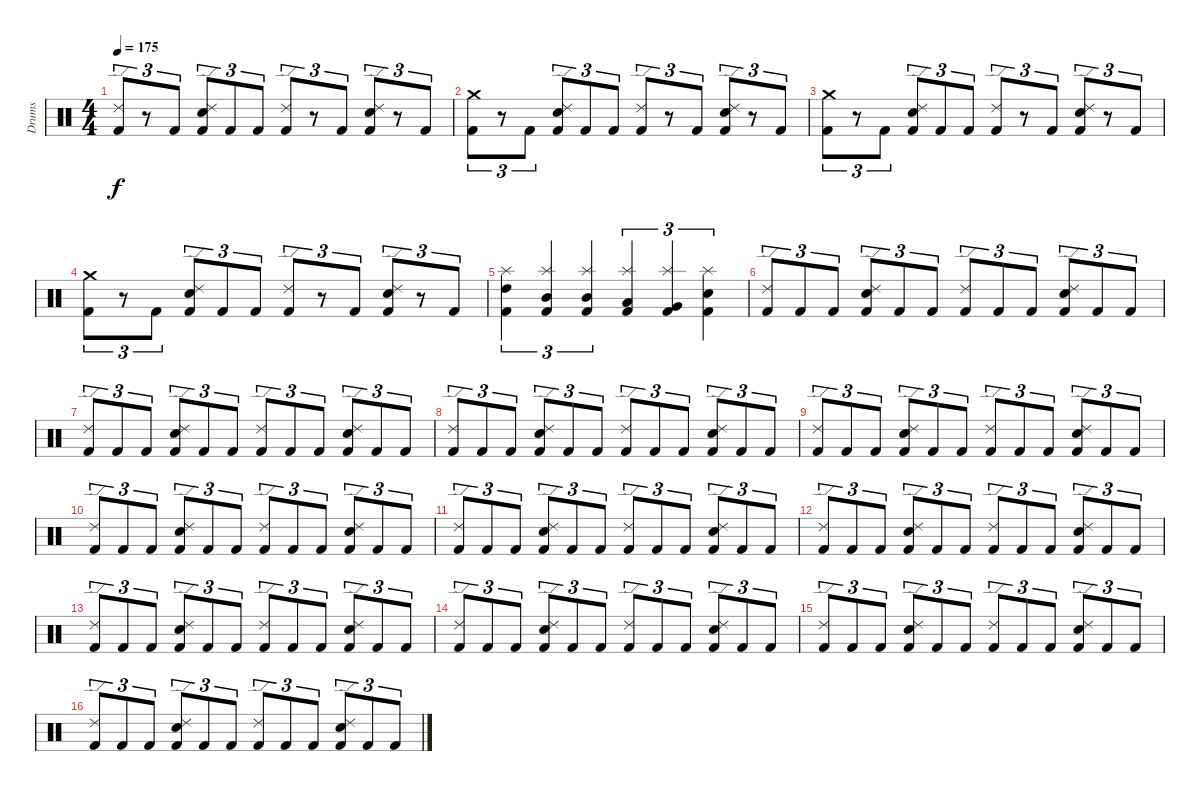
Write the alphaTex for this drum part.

\track ("Drums" "Drums") {instrument percussion}
\staff {score}
\articulation defaults
\ts (4 4)
\tempo 175
\clef neutral
\ks c
("Ride (edge) 2" "Kick (hit) 2").8{tu (3 2) dy f} r.8{tu (3 2)} "Kick (hit) 2".8{tu (3 2)} ("Ride (edge) 2" "Electric Snare (hit)" "Kick (hit) 2").8{tu (3 2)} "Kick (hit) 2".8{tu (3 2)} "Kick (hit) 2".8{tu (3 2)} ("Ride (edge) 2" "Kick (hit) 2").8{tu (3 2)} r.8{tu (3 2)} "Kick (hit) 2".8{tu (3 2)} ("Electric Snare (hit)" "Kick (hit) 2" "Ride (edge) 2").8{tu (3 2)} r.8{tu (3 2)} "Kick (hit) 2".8{tu (3 2)} |
("Crash medium (hit)" "Kick (hit) 2").8{tu (3 2)} r.8{tu (3 2)} "Kick (hit) 2".8{tu (3 2)} ("Ride (edge) 2" "Electric Snare (hit)" "Kick (hit) 2").8{tu (3 2)} "Kick (hit) 2".8{tu (3 2)} "Kick (hit) 2".8{tu (3 2)} ("Ride (edge) 2" "Kick (hit) 2").8{tu (3 2)} r.8{tu (3 2)} "Kick (hit) 2".8{tu (3 2)} ("Electric Snare (hit)" "Kick (hit) 2" "Ride (edge) 2").8{tu (3 2)} r.8{tu (3 2)} "Kick (hit) 2".8{tu (3 2)} |
("Crash medium (hit)" "Kick (hit) 2").8{tu (3 2)} r.8{tu (3 2)} "Kick (hit) 2".8{tu (3 2)} ("Ride (edge) 2" "Electric Snare (hit)" "Kick (hit) 2").8{tu (3 2)} "Kick (hit) 2".8{tu (3 2)} "Kick (hit) 2".8{tu (3 2)} ("Ride (edge) 2" "Kick (hit) 2").8{tu (3 2)} r.8{tu (3 2)} "Kick (hit) 2".8{tu (3 2)} ("Electric Snare (hit)" "Kick (hit) 2" "Ride (edge) 2").8{tu (3 2)} r.8{tu (3 2)} "Kick (hit) 2".8{tu (3 2)} |
("Crash medium (hit)" "Kick (hit) 2").8{tu (3 2)} r.8{tu (3 2)} "Kick (hit) 2".8{tu (3 2)} ("Ride (edge) 2" "Electric Snare (hit)" "Kick (hit) 2").8{tu (3 2)} "Kick (hit) 2".8{tu (3 2)} "Kick (hit) 2".8{tu (3 2)} ("Ride (edge) 2" "Kick (hit) 2").8{tu (3 2)} r.8{tu (3 2)} "Kick (hit) 2".8{tu (3 2)} ("Electric Snare (hit)" "Kick (hit) 2" "Ride (edge) 2").8{tu (3 2)} r.8{tu (3 2)} "Kick (hit) 2".8{tu (3 2)} |
("High Tom (hit)" "Splash (hit)" "Kick (hit) 2").4{tu (3 2)} ("Mid Tom (hit)" "Splash (hit)" "Kick (hit) 2").4{tu (3 2)} ("Mid Tom (hit)" "Splash (hit)" "Kick (hit) 2").4{tu (3 2)} ("Low Tom (hit)" "Splash (hit)" "Kick (hit) 2").4{tu (3 2)} ("Very Low Tom (hit)" "Splash (hit)" "Kick (hit) 2").4{tu (3 2)} ("Electric Snare (hit)" "Splash (hit)" "Kick (hit) 2").4{tu (3 2)} |
("Ride (edge) 2" "Kick (hit) 2").8{tu (3 2)} "Kick (hit) 2".8{tu (3 2)} "Kick (hit) 2".8{tu (3 2)} ("Electric Snare (hit)" "Ride (edge) 2" "Kick (hit) 2").8{tu (3 2)} "Kick (hit) 2".8{tu (3 2)} "Kick (hit) 2".8{tu (3 2)} ("Ride (edge) 2" "Kick (hit) 2").8{tu (3 2)} "Kick (hit) 2".8{tu (3 2)} "Kick (hit) 2".8{tu (3 2)} ("Electric Snare (hit)" "Ride (edge) 2" "Kick (hit) 2").8{tu (3 2)} "Kick (hit) 2".8{tu (3 2)} "Kick (hit) 2".8{tu (3 2)} |
("Ride (edge) 2" "Kick (hit) 2").8{tu (3 2)} "Kick (hit) 2".8{tu (3 2)} "Kick (hit) 2".8{tu (3 2)} ("Electric Snare (hit)" "Ride (edge) 2" "Kick (hit) 2").8{tu (3 2)} "Kick (hit) 2".8{tu (3 2)} "Kick (hit) 2".8{tu (3 2)} ("Ride (edge) 2" "Kick (hit) 2").8{tu (3 2)} "Kick (hit) 2".8{tu (3 2)} "Kick (hit) 2".8{tu (3 2)} ("Electric Snare (hit)" "Ride (edge) 2" "Kick (hit) 2").8{tu (3 2)} "Kick (hit) 2".8{tu (3 2)} "Kick (hit) 2".8{tu (3 2)} |
("Ride (edge) 2" "Kick (hit) 2").8{tu (3 2)} "Kick (hit) 2".8{tu (3 2)} "Kick (hit) 2".8{tu (3 2)} ("Electric Snare (hit)" "Ride (edge) 2" "Kick (hit) 2").8{tu (3 2)} "Kick (hit) 2".8{tu (3 2)} "Kick (hit) 2".8{tu (3 2)} ("Ride (edge) 2" "Kick (hit) 2").8{tu (3 2)} "Kick (hit) 2".8{tu (3 2)} "Kick (hit) 2".8{tu (3 2)} ("Electric Snare (hit)" "Ride (edge) 2" "Kick (hit) 2").8{tu (3 2)} "Kick (hit) 2".8{tu (3 2)} "Kick (hit) 2".8{tu (3 2)} |
("Ride (edge) 2" "Kick (hit) 2").8{tu (3 2)} "Kick (hit) 2".8{tu (3 2)} "Kick (hit) 2".8{tu (3 2)} ("Electric Snare (hit)" "Ride (edge) 2" "Kick (hit) 2").8{tu (3 2)} "Kick (hit) 2".8{tu (3 2)} "Kick (hit) 2".8{tu (3 2)} ("Ride (edge) 2" "Kick (hit) 2").8{tu (3 2)} "Kick (hit) 2".8{tu (3 2)} "Kick (hit) 2".8{tu (3 2)} ("Electric Snare (hit)" "Ride (edge) 2" "Kick (hit) 2").8{tu (3 2)} "Kick (hit) 2".8{tu (3 2)} "Kick (hit) 2".8{tu (3 2)} |
("Ride (edge) 2" "Kick (hit) 2").8{tu (3 2)} "Kick (hit) 2".8{tu (3 2)} "Kick (hit) 2".8{tu (3 2)} ("Electric Snare (hit)" "Ride (edge) 2" "Kick (hit) 2").8{tu (3 2)} "Kick (hit) 2".8{tu (3 2)} "Kick (hit) 2".8{tu (3 2)} ("Ride (edge) 2" "Kick (hit) 2").8{tu (3 2)} "Kick (hit) 2".8{tu (3 2)} "Kick (hit) 2".8{tu (3 2)} ("Electric Snare (hit)" "Ride (edge) 2" "Kick (hit) 2").8{tu (3 2)} "Kick (hit) 2".8{tu (3 2)} "Kick (hit) 2".8{tu (3 2)} |
("Ride (edge) 2" "Kick (hit) 2").8{tu (3 2)} "Kick (hit) 2".8{tu (3 2)} "Kick (hit) 2".8{tu (3 2)} ("Electric Snare (hit)" "Ride (edge) 2" "Kick (hit) 2").8{tu (3 2)} "Kick (hit) 2".8{tu (3 2)} "Kick (hit) 2".8{tu (3 2)} ("Ride (edge) 2" "Kick (hit) 2").8{tu (3 2)} "Kick (hit) 2".8{tu (3 2)} "Kick (hit) 2".8{tu (3 2)} ("Electric Snare (hit)" "Ride (edge) 2" "Kick (hit) 2").8{tu (3 2)} "Kick (hit) 2".8{tu (3 2)} "Kick (hit) 2".8{tu (3 2)} |
("Ride (edge) 2" "Kick (hit) 2").8{tu (3 2)} "Kick (hit) 2".8{tu (3 2)} "Kick (hit) 2".8{tu (3 2)} ("Electric Snare (hit)" "Ride (edge) 2" "Kick (hit) 2").8{tu (3 2)} "Kick (hit) 2".8{tu (3 2)} "Kick (hit) 2".8{tu (3 2)} ("Ride (edge) 2" "Kick (hit) 2").8{tu (3 2)} "Kick (hit) 2".8{tu (3 2)} "Kick (hit) 2".8{tu (3 2)} ("Electric Snare (hit)" "Ride (edge) 2" "Kick (hit) 2").8{tu (3 2)} "Kick (hit) 2".8{tu (3 2)} "Kick (hit) 2".8{tu (3 2)} |
("Ride (edge) 2" "Kick (hit) 2").8{tu (3 2)} "Kick (hit) 2".8{tu (3 2)} "Kick (hit) 2".8{tu (3 2)} ("Electric Snare (hit)" "Ride (edge) 2" "Kick (hit) 2").8{tu (3 2)} "Kick (hit) 2".8{tu (3 2)} "Kick (hit) 2".8{tu (3 2)} ("Ride (edge) 2" "Kick (hit) 2").8{tu (3 2)} "Kick (hit) 2".8{tu (3 2)} "Kick (hit) 2".8{tu (3 2)} ("Electric Snare (hit)" "Ride (edge) 2" "Kick (hit) 2").8{tu (3 2)} "Kick (hit) 2".8{tu (3 2)} "Kick (hit) 2".8{tu (3 2)} |
("Ride (edge) 2" "Kick (hit) 2").8{tu (3 2)} "Kick (hit) 2".8{tu (3 2)} "Kick (hit) 2".8{tu (3 2)} ("Electric Snare (hit)" "Ride (edge) 2" "Kick (hit) 2").8{tu (3 2)} "Kick (hit) 2".8{tu (3 2)} "Kick (hit) 2".8{tu (3 2)} ("Ride (edge) 2" "Kick (hit) 2").8{tu (3 2)} "Kick (hit) 2".8{tu (3 2)} "Kick (hit) 2".8{tu (3 2)} ("Electric Snare (hit)" "Ride (edge) 2" "Kick (hit) 2").8{tu (3 2)} "Kick (hit) 2".8{tu (3 2)} "Kick (hit) 2".8{tu (3 2)} |
("Ride (edge) 2" "Kick (hit) 2").8{tu (3 2)} "Kick (hit) 2".8{tu (3 2)} "Kick (hit) 2".8{tu (3 2)} ("Electric Snare (hit)" "Ride (edge) 2" "Kick (hit) 2").8{tu (3 2)} "Kick (hit) 2".8{tu (3 2)} "Kick (hit) 2".8{tu (3 2)} ("Ride (edge) 2" "Kick (hit) 2").8{tu (3 2)} "Kick (hit) 2".8{tu (3 2)} "Kick (hit) 2".8{tu (3 2)} ("Electric Snare (hit)" "Ride (edge) 2" "Kick (hit) 2").8{tu (3 2)} "Kick (hit) 2".8{tu (3 2)} "Kick (hit) 2".8{tu (3 2)} |
("Ride (edge) 2" "Kick (hit) 2").8{tu (3 2)} "Kick (hit) 2".8{tu (3 2)} "Kick (hit) 2".8{tu (3 2)} ("Electric Snare (hit)" "Ride (edge) 2" "Kick (hit) 2").8{tu (3 2)} "Kick (hit) 2".8{tu (3 2)} "Kick (hit) 2".8{tu (3 2)} ("Ride (edge) 2" "Kick (hit) 2").8{tu (3 2)} "Kick (hit) 2".8{tu (3 2)} "Kick (hit) 2".8{tu (3 2)} ("Electric Snare (hit)" "Ride (edge) 2" "Kick (hit) 2").8{tu (3 2)} "Kick (hit) 2".8{tu (3 2)} "Kick (hit) 2".8{tu (3 2)}
